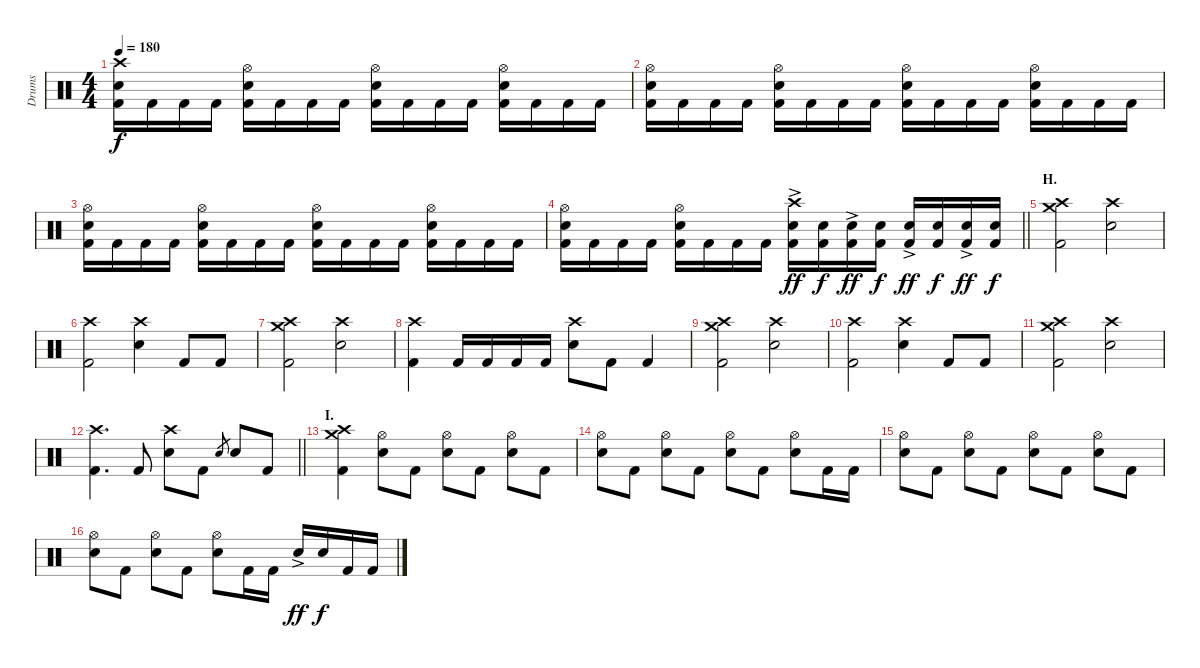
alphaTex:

\track ("Drums" "Drums") {instrument percussion}
\staff {score}
\articulation defaults
\ts (4 4)
\tempo 180
\clef neutral
\ks c
("Crash high (hit)" "Electric Snare (hit)" "Kick (hit) 2").16{dy f} "Kick (hit) 2".16 "Kick (hit) 2".16 "Kick (hit) 2".16 ("Hi-Hat (open)" "Electric Snare (hit)" "Kick (hit) 2").16 "Kick (hit) 2".16 "Kick (hit) 2".16 "Kick (hit) 2".16 ("Hi-Hat (open)" "Electric Snare (hit)" "Kick (hit) 2").16 "Kick (hit) 2".16 "Kick (hit) 2".16 "Kick (hit) 2".16 ("Hi-Hat (open)" "Electric Snare (hit)" "Kick (hit) 2").16 "Kick (hit) 2".16 "Kick (hit) 2".16 "Kick (hit) 2".16 |
("Hi-Hat (open)" "Electric Snare (hit)" "Kick (hit) 2").16 "Kick (hit) 2".16 "Kick (hit) 2".16 "Kick (hit) 2".16 ("Hi-Hat (open)" "Electric Snare (hit)" "Kick (hit) 2").16 "Kick (hit) 2".16 "Kick (hit) 2".16 "Kick (hit) 2".16 ("Hi-Hat (open)" "Electric Snare (hit)" "Kick (hit) 2").16 "Kick (hit) 2".16 "Kick (hit) 2".16 "Kick (hit) 2".16 ("Hi-Hat (open)" "Electric Snare (hit)" "Kick (hit) 2").16 "Kick (hit) 2".16 "Kick (hit) 2".16 "Kick (hit) 2".16 |
("Hi-Hat (open)" "Electric Snare (hit)" "Kick (hit) 2").16 "Kick (hit) 2".16 "Kick (hit) 2".16 "Kick (hit) 2".16 ("Hi-Hat (open)" "Electric Snare (hit)" "Kick (hit) 2").16 "Kick (hit) 2".16 "Kick (hit) 2".16 "Kick (hit) 2".16 ("Hi-Hat (open)" "Electric Snare (hit)" "Kick (hit) 2").16 "Kick (hit) 2".16 "Kick (hit) 2".16 "Kick (hit) 2".16 ("Hi-Hat (open)" "Electric Snare (hit)" "Kick (hit) 2").16 "Kick (hit) 2".16 "Kick (hit) 2".16 "Kick (hit) 2".16 |
\barLineRight lightlight
("Hi-Hat (open)" "Electric Snare (hit)" "Kick (hit) 2").16 "Kick (hit) 2".16 "Kick (hit) 2".16 "Kick (hit) 2".16 ("Hi-Hat (open)" "Electric Snare (hit)" "Kick (hit) 2").16 "Kick (hit) 2".16 "Kick (hit) 2".16 "Kick (hit) 2".16 ("Crash high (hit)" "Electric Snare (hit)"{ac} "Kick (hit) 2").16{dy ff} ("Electric Snare (hit)" "Kick (hit) 2").16{dy f} ("Electric Snare (hit)"{ac} "Kick (hit) 2").16{dy ff} ("Electric Snare (hit)" "Kick (hit) 2").16{dy f} ("Electric Snare (hit)"{ac} "Kick (hit) 2").16{dy ff} ("Electric Snare (hit)" "Kick (hit) 2").16{dy f} ("Electric Snare (hit)"{ac} "Kick (hit) 2").16{dy ff} ("Electric Snare (hit)" "Kick (hit) 2").16{dy f} |
\section ("" "H.")
("Crash medium (hit)" "Crash high (hit)" "Kick (hit) 2").2 ("Crash high (hit)" "Electric Snare (hit)").2 |
("Crash high (hit)" "Kick (hit) 2").2 ("Crash high (hit)" "Electric Snare (hit)").4 "Kick (hit) 2".8 "Kick (hit) 2".8 |
("Crash medium (hit)" "Crash high (hit)" "Kick (hit) 2").2 ("Crash high (hit)" "Electric Snare (hit)").2 |
("Crash high (hit)" "Kick (hit) 2").4 "Kick (hit) 2".16 "Kick (hit) 2".16 "Kick (hit) 2".16 "Kick (hit) 2".16 ("Crash high (hit)" "Electric Snare (hit)").8 "Kick (hit) 2".8 "Kick (hit) 2".4 |
("Crash medium (hit)" "Crash high (hit)" "Kick (hit) 2").2 ("Crash high (hit)" "Electric Snare (hit)").2 |
("Crash high (hit)" "Kick (hit) 2").2 ("Crash high (hit)" "Electric Snare (hit)").4 "Kick (hit) 2".8 "Kick (hit) 2".8 |
("Crash medium (hit)" "Crash high (hit)" "Kick (hit) 2").2 ("Crash high (hit)" "Electric Snare (hit)").2 |
\barLineRight lightlight
("Crash high (hit)" "Kick (hit) 2").4{d} "Kick (hit) 2".8 ("Crash high (hit)" "Electric Snare (hit)").8 "Kick (hit) 2".8 "Electric Snare (hit)".8{gr} "Electric Snare (hit)".8 "Kick (hit) 2".8 |
\section ("" "I.")
("Crash medium (hit)" "Crash high (hit)" "Kick (hit) 2").4 ("Hi-Hat (open)" "Electric Snare (hit)").8 "Kick (hit) 2".8 ("Hi-Hat (open)" "Electric Snare (hit)").8 "Kick (hit) 2".8 ("Hi-Hat (open)" "Electric Snare (hit)").8 "Kick (hit) 2".8 |
("Hi-Hat (open)" "Electric Snare (hit)").8 "Kick (hit) 2".8 ("Hi-Hat (open)" "Electric Snare (hit)").8 "Kick (hit) 2".8 ("Hi-Hat (open)" "Electric Snare (hit)").8 "Kick (hit) 2".8 ("Hi-Hat (open)" "Electric Snare (hit)").8 "Kick (hit) 2".16 "Kick (hit) 2".16 |
("Hi-Hat (open)" "Electric Snare (hit)").8 "Kick (hit) 2".8 ("Hi-Hat (open)" "Electric Snare (hit)").8 "Kick (hit) 2".8 ("Hi-Hat (open)" "Electric Snare (hit)").8 "Kick (hit) 2".8 ("Hi-Hat (open)" "Electric Snare (hit)").8 "Kick (hit) 2".8 |
("Hi-Hat (open)" "Electric Snare (hit)").8 "Kick (hit) 2".8 ("Hi-Hat (open)" "Electric Snare (hit)").8 "Kick (hit) 2".8 ("Hi-Hat (open)" "Electric Snare (hit)").8 "Kick (hit) 2".16 "Kick (hit) 2".16 "Electric Snare (hit)"{ac}.16{dy ff} "Electric Snare (hit)".16{dy f} "Kick (hit) 2".16 "Kick (hit) 2".16
